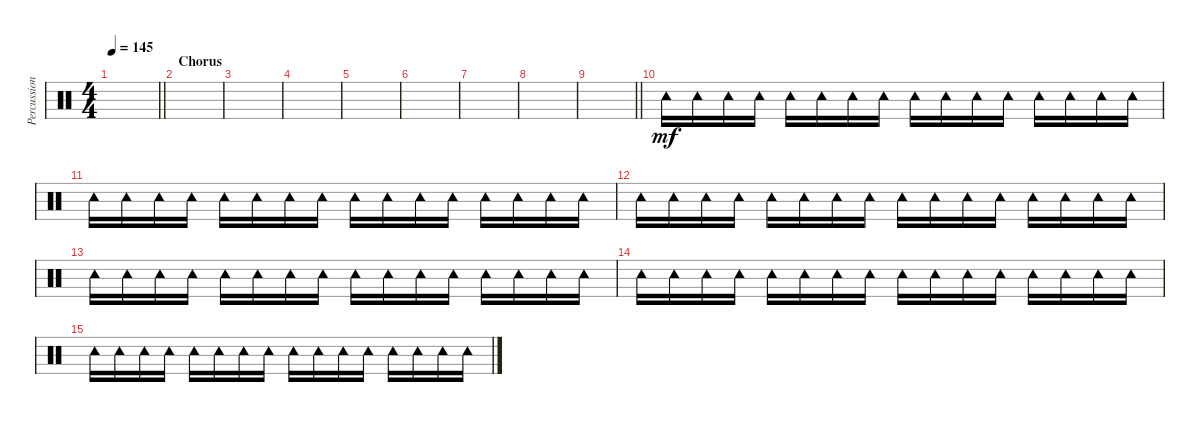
\track ("Percussion" "Percussion") {instrument percussion}
\staff {score}
\articulation defaults
\ts (4 4)
\tempo 145
\clef neutral
\barLineRight lightlight
\ks c
|
\section ("" "Chorus")
|
|
|
|
|
|
|
\barLineRight lightlight
|
"Tambourine (hit)".16{dy mf} "Tambourine (hit)".16 "Tambourine (hit)".16 "Tambourine (hit)".16 "Tambourine (hit)".16 "Tambourine (hit)".16 "Tambourine (hit)".16 "Tambourine (hit)".16 "Tambourine (hit)".16 "Tambourine (hit)".16 "Tambourine (hit)".16 "Tambourine (hit)".16 "Tambourine (hit)".16 "Tambourine (hit)".16 "Tambourine (hit)".16 "Tambourine (hit)".16 |
"Tambourine (hit)".16 "Tambourine (hit)".16 "Tambourine (hit)".16 "Tambourine (hit)".16 "Tambourine (hit)".16 "Tambourine (hit)".16 "Tambourine (hit)".16 "Tambourine (hit)".16 "Tambourine (hit)".16 "Tambourine (hit)".16 "Tambourine (hit)".16 "Tambourine (hit)".16 "Tambourine (hit)".16 "Tambourine (hit)".16 "Tambourine (hit)".16 "Tambourine (hit)".16 |
"Tambourine (hit)".16 "Tambourine (hit)".16 "Tambourine (hit)".16 "Tambourine (hit)".16 "Tambourine (hit)".16 "Tambourine (hit)".16 "Tambourine (hit)".16 "Tambourine (hit)".16 "Tambourine (hit)".16 "Tambourine (hit)".16 "Tambourine (hit)".16 "Tambourine (hit)".16 "Tambourine (hit)".16 "Tambourine (hit)".16 "Tambourine (hit)".16 "Tambourine (hit)".16 |
"Tambourine (hit)".16 "Tambourine (hit)".16 "Tambourine (hit)".16 "Tambourine (hit)".16 "Tambourine (hit)".16 "Tambourine (hit)".16 "Tambourine (hit)".16 "Tambourine (hit)".16 "Tambourine (hit)".16 "Tambourine (hit)".16 "Tambourine (hit)".16 "Tambourine (hit)".16 "Tambourine (hit)".16 "Tambourine (hit)".16 "Tambourine (hit)".16 "Tambourine (hit)".16 |
"Tambourine (hit)".16 "Tambourine (hit)".16 "Tambourine (hit)".16 "Tambourine (hit)".16 "Tambourine (hit)".16 "Tambourine (hit)".16 "Tambourine (hit)".16 "Tambourine (hit)".16 "Tambourine (hit)".16 "Tambourine (hit)".16 "Tambourine (hit)".16 "Tambourine (hit)".16 "Tambourine (hit)".16 "Tambourine (hit)".16 "Tambourine (hit)".16 "Tambourine (hit)".16 |
"Tambourine (hit)".16 "Tambourine (hit)".16 "Tambourine (hit)".16 "Tambourine (hit)".16 "Tambourine (hit)".16 "Tambourine (hit)".16 "Tambourine (hit)".16 "Tambourine (hit)".16 "Tambourine (hit)".16 "Tambourine (hit)".16 "Tambourine (hit)".16 "Tambourine (hit)".16 "Tambourine (hit)".16 "Tambourine (hit)".16 "Tambourine (hit)".16 "Tambourine (hit)".16
